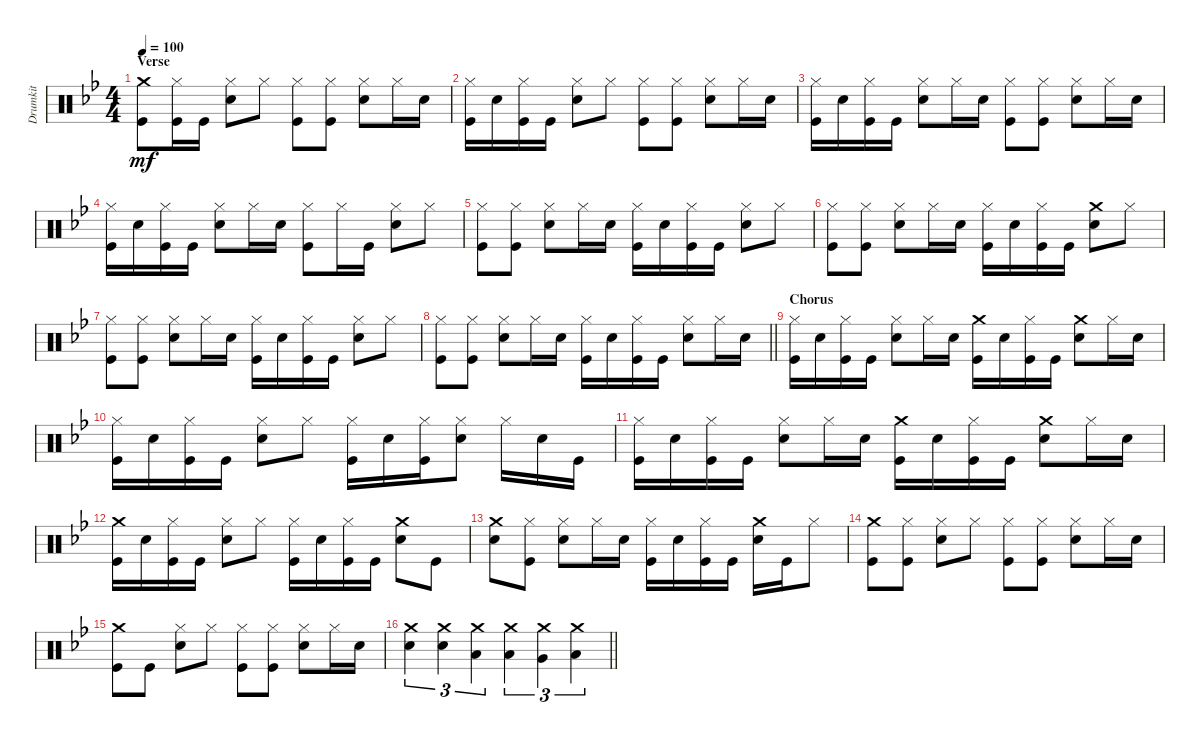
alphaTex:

\track ("Drumkit" "Drumkit") {instrument percussion}
\staff {score}
\articulation defaults
\ts (4 4)
\section ("" "Verse")
\tempo 100
\clef neutral
\ks bb
("Kick (hit)" "Crash medium (hit)").8{dy mf} ("Kick (hit)" "Hi-Hat (closed)").16 "Kick (hit)".16 ("Snare (hit) 2" "Hi-Hat (closed)").8 "Hi-Hat (closed)".8 ("Hi-Hat (closed)" "Kick (hit)").8 ("Kick (hit)" "Hi-Hat (closed)").8 ("Snare (hit) 2" "Hi-Hat (closed)").8 "Hi-Hat (closed)".16 "Snare (hit) 2".16 |
("Kick (hit)" "Hi-Hat (closed)").16 "Snare (hit) 2".16 ("Kick (hit)" "Hi-Hat (closed)").16 "Kick (hit)".16 ("Snare (hit) 2" "Hi-Hat (closed)").8 "Hi-Hat (closed)".8 ("Hi-Hat (closed)" "Kick (hit)").8 ("Kick (hit)" "Hi-Hat (closed)").8 ("Snare (hit) 2" "Hi-Hat (closed)").8 "Hi-Hat (closed)".16 "Snare (hit) 2".16 |
("Kick (hit)" "Hi-Hat (closed)").16 "Snare (hit) 2".16 ("Kick (hit)" "Hi-Hat (closed)").16 "Kick (hit)".16 ("Snare (hit) 2" "Hi-Hat (closed)").8 "Hi-Hat (closed)".16 "Snare (hit) 2".16 ("Hi-Hat (closed)" "Kick (hit)").8 ("Kick (hit)" "Hi-Hat (closed)").8 ("Snare (hit) 2" "Hi-Hat (closed)").8 "Hi-Hat (closed)".16 "Snare (hit) 2".16 |
("Kick (hit)" "Hi-Hat (closed)").16 "Snare (hit) 2".16 ("Kick (hit)" "Hi-Hat (closed)").16 "Kick (hit)".16 ("Snare (hit) 2" "Hi-Hat (closed)").8 "Hi-Hat (closed)".16 "Snare (hit) 2".16 ("Hi-Hat (closed)" "Kick (hit)").8 "Hi-Hat (closed)".16 "Kick (hit)".16 ("Snare (hit) 2" "Hi-Hat (closed)").8 "Hi-Hat (closed)".8 |
("Kick (hit)" "Hi-Hat (closed)").8 ("Hi-Hat (closed)" "Kick (hit)").8 ("Snare (hit) 2" "Hi-Hat (closed)").8 "Hi-Hat (closed)".16 "Snare (hit) 2".16 ("Kick (hit)" "Hi-Hat (closed)").16 "Snare (hit) 2".16 ("Kick (hit)" "Hi-Hat (closed)").16 "Kick (hit)".16 ("Snare (hit) 2" "Hi-Hat (closed)").8 "Hi-Hat (closed)".8 |
("Kick (hit)" "Hi-Hat (closed)").8 ("Hi-Hat (closed)" "Kick (hit)").8 ("Snare (hit) 2" "Hi-Hat (closed)").8 "Hi-Hat (closed)".16 "Snare (hit) 2".16 ("Kick (hit)" "Hi-Hat (closed)").16 "Snare (hit) 2".16 ("Kick (hit)" "Hi-Hat (closed)").16 "Kick (hit)".16 ("Crash medium (hit)" "Snare (hit) 2").8 "Hi-Hat (closed)".8 |
("Kick (hit)" "Hi-Hat (closed)").8 ("Hi-Hat (closed)" "Kick (hit)").8 ("Snare (hit) 2" "Hi-Hat (closed)").8 "Hi-Hat (closed)".16 "Snare (hit) 2".16 ("Kick (hit)" "Hi-Hat (closed)").16 "Snare (hit) 2".16 ("Kick (hit)" "Hi-Hat (closed)").16 "Kick (hit)".16 ("Snare (hit) 2" "Hi-Hat (closed)").8 "Hi-Hat (closed)".8 |
\barLineRight lightlight
("Kick (hit)" "Hi-Hat (closed)").8 ("Hi-Hat (closed)" "Kick (hit)").8 ("Snare (hit) 2" "Hi-Hat (closed)").8 "Hi-Hat (closed)".16 "Snare (hit) 2".16 ("Kick (hit)" "Hi-Hat (closed)").16 "Snare (hit) 2".16 ("Kick (hit)" "Hi-Hat (closed)").16 "Kick (hit)".16 ("Snare (hit) 2" "Hi-Hat (closed)").8 "Hi-Hat (closed)".16 "Snare (hit) 2".16 |
\section ("" "Chorus")
("Kick (hit)" "Hi-Hat (closed)").16 "Snare (hit) 2".16 ("Kick (hit)" "Hi-Hat (closed)").16 "Kick (hit)".16 ("Snare (hit) 2" "Hi-Hat (closed)").8 "Hi-Hat (closed)".16 "Snare (hit) 2".16 ("Kick (hit)" "Crash medium (hit)").16 "Snare (hit) 2".16 ("Kick (hit)" "Hi-Hat (closed)").16 "Kick (hit)".16 ("Snare (hit) 2" "Crash medium (hit)").8 "Hi-Hat (closed)".16 "Snare (hit) 2".16 |
("Kick (hit)" "Hi-Hat (closed)").16 "Snare (hit) 2".16 ("Kick (hit)" "Hi-Hat (closed)").16 "Kick (hit)".16 ("Snare (hit) 2" "Hi-Hat (closed)").8 "Hi-Hat (closed)".8 ("Kick (hit)" "Hi-Hat (closed)").16 "Snare (hit) 2".16 ("Hi-Hat (closed)" "Kick (hit)").16 ("Snare (hit) 2" "Hi-Hat (closed)").8 "Hi-Hat (closed)".16 "Snare (hit) 2".16 "Kick (hit)".16 |
("Kick (hit)" "Hi-Hat (closed)").16 "Snare (hit) 2".16 ("Kick (hit)" "Hi-Hat (closed)").16 "Kick (hit)".16 ("Snare (hit) 2" "Hi-Hat (closed)").8 "Hi-Hat (closed)".16 "Snare (hit) 2".16 ("Kick (hit)" "Crash medium (hit)").16 "Snare (hit) 2".16 ("Kick (hit)" "Hi-Hat (closed)").16 "Kick (hit)".16 ("Snare (hit) 2" "Crash medium (hit)").8 "Hi-Hat (closed)".16 "Snare (hit) 2".16 |
("Kick (hit)" "Crash medium (hit)").16 "Snare (hit) 2".16 ("Kick (hit)" "Hi-Hat (closed)").16 "Kick (hit)".16 ("Snare (hit) 2" "Hi-Hat (closed)").8 "Hi-Hat (closed)".8 ("Kick (hit)" "Hi-Hat (closed)").16 "Snare (hit) 2".16 ("Kick (hit)" "Hi-Hat (closed)").16 "Kick (hit)".16 ("Crash medium (hit)" "Snare (hit) 2").8 "Kick (hit)".8 |
("Crash medium (hit)" "Snare (hit) 2").8 ("Kick (hit)" "Hi-Hat (closed)").8 ("Snare (hit) 2" "Hi-Hat (closed)").8 "Hi-Hat (closed)".16 "Snare (hit) 2".16 ("Kick (hit)" "Hi-Hat (closed)").16 "Snare (hit) 2".16 ("Kick (hit)" "Hi-Hat (closed)").16 "Kick (hit)".16 ("Crash medium (hit)" "Snare (hit) 2").16 "Kick (hit)".16 "Hi-Hat (closed)".8 |
("Crash medium (hit)" "Kick (hit)").8 ("Kick (hit)" "Hi-Hat (closed)").8 ("Snare (hit) 2" "Hi-Hat (closed)").8 "Hi-Hat (closed)".8 ("Kick (hit)" "Hi-Hat (closed)").8 ("Hi-Hat (closed)" "Kick (hit)").8 ("Snare (hit) 2" "Hi-Hat (closed)").8 "Hi-Hat (closed)".16 "Snare (hit) 2".16 |
("Crash medium (hit)" "Kick (hit)").8 "Kick (hit)".8 ("Snare (hit) 2" "Hi-Hat (closed)").8 "Hi-Hat (closed)".8 ("Hi-Hat (closed)" "Kick (hit)").8 ("Kick (hit)" "Hi-Hat (closed)").8 ("Snare (hit) 2" "Hi-Hat (closed)").8 "Hi-Hat (closed)".16 "Snare (hit) 2".16 |
\barLineRight lightlight
("Crash medium (hit)" "Snare (hit) 2").4{tu (3 2)} ("Crash medium (hit)" "Snare (hit) 2").4{tu (3 2)} ("Crash medium (hit)" "Low Tom (hit)").4{tu (3 2)} ("Crash medium (hit)" "Low Tom (hit)").4{tu (3 2)} ("Crash medium (hit)" "Very Low Tom (hit)").4{tu (3 2)} ("Crash medium (hit)" "Low Floor Tom (hit)").4{tu (3 2)}
